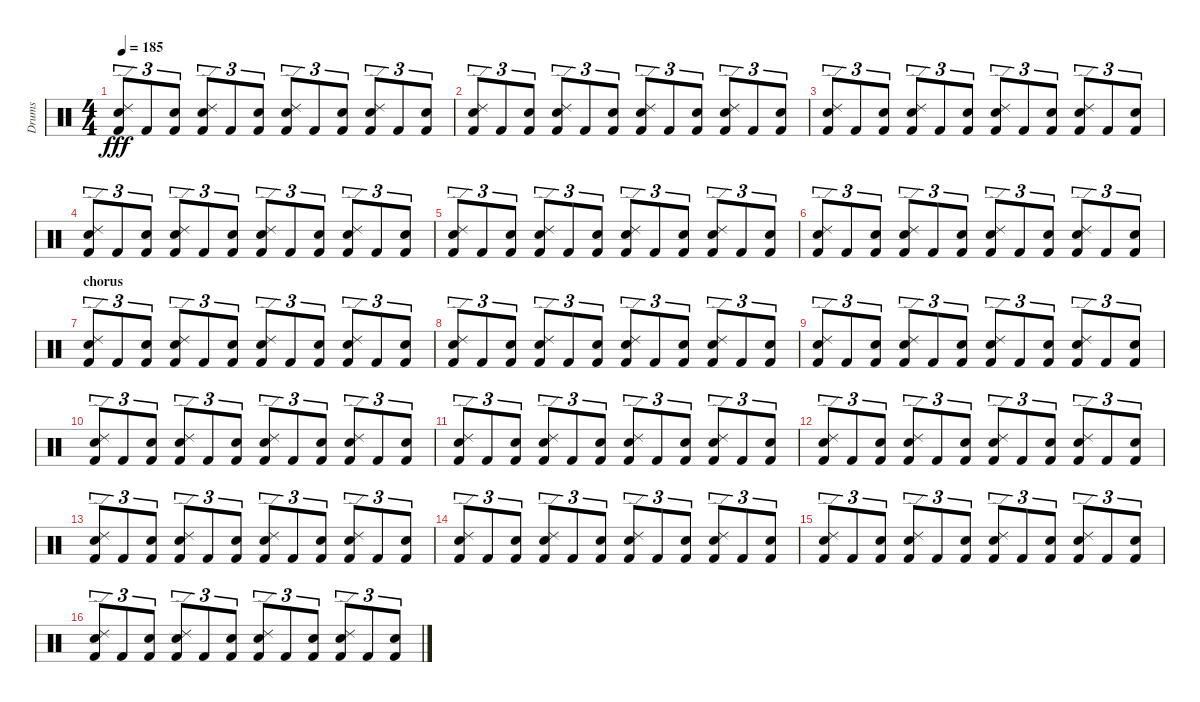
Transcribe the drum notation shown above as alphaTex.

\track ("Drums" "Drums") {instrument percussion}
\staff {score}
\articulation defaults
\ts (4 4)
\tempo 185
\clef neutral
\ks c
("Ride (edge) 2" "Electric Snare (hit)" "Kick (hit) 2").8{tu (3 2) dy fff} "Kick (hit) 2".8{tu (3 2)} ("Snare (hit) 2" "Kick (hit) 2").8{tu (3 2)} ("Ride (edge) 2" "Electric Snare (hit)" "Kick (hit) 2").8{tu (3 2)} "Kick (hit) 2".8{tu (3 2)} ("Snare (hit) 2" "Kick (hit) 2").8{tu (3 2)} ("Ride (edge) 2" "Electric Snare (hit)" "Kick (hit) 2").8{tu (3 2)} "Kick (hit) 2".8{tu (3 2)} ("Snare (hit) 2" "Kick (hit) 2").8{tu (3 2)} ("Ride (edge) 2" "Electric Snare (hit)" "Kick (hit) 2").8{tu (3 2)} "Kick (hit) 2".8{tu (3 2)} ("Snare (hit) 2" "Kick (hit) 2").8{tu (3 2)} |
("Ride (edge) 2" "Electric Snare (hit)" "Kick (hit) 2").8{tu (3 2)} "Kick (hit) 2".8{tu (3 2)} ("Snare (hit) 2" "Kick (hit) 2").8{tu (3 2)} ("Ride (edge) 2" "Electric Snare (hit)" "Kick (hit) 2").8{tu (3 2)} "Kick (hit) 2".8{tu (3 2)} ("Snare (hit) 2" "Kick (hit) 2").8{tu (3 2)} ("Ride (edge) 2" "Electric Snare (hit)" "Kick (hit) 2").8{tu (3 2)} "Kick (hit) 2".8{tu (3 2)} ("Snare (hit) 2" "Kick (hit) 2").8{tu (3 2)} ("Ride (edge) 2" "Electric Snare (hit)" "Kick (hit) 2").8{tu (3 2)} "Kick (hit) 2".8{tu (3 2)} ("Snare (hit) 2" "Kick (hit) 2").8{tu (3 2)} |
("Ride (edge) 2" "Electric Snare (hit)" "Kick (hit) 2").8{tu (3 2)} "Kick (hit) 2".8{tu (3 2)} ("Snare (hit) 2" "Kick (hit) 2").8{tu (3 2)} ("Ride (edge) 2" "Electric Snare (hit)" "Kick (hit) 2").8{tu (3 2)} "Kick (hit) 2".8{tu (3 2)} ("Snare (hit) 2" "Kick (hit) 2").8{tu (3 2)} ("Ride (edge) 2" "Electric Snare (hit)" "Kick (hit) 2").8{tu (3 2)} "Kick (hit) 2".8{tu (3 2)} ("Snare (hit) 2" "Kick (hit) 2").8{tu (3 2)} ("Ride (edge) 2" "Electric Snare (hit)" "Kick (hit) 2").8{tu (3 2)} "Kick (hit) 2".8{tu (3 2)} ("Snare (hit) 2" "Kick (hit) 2").8{tu (3 2)} |
("Ride (edge) 2" "Electric Snare (hit)" "Kick (hit) 2").8{tu (3 2)} "Kick (hit) 2".8{tu (3 2)} ("Snare (hit) 2" "Kick (hit) 2").8{tu (3 2)} ("Ride (edge) 2" "Electric Snare (hit)" "Kick (hit) 2").8{tu (3 2)} "Kick (hit) 2".8{tu (3 2)} ("Snare (hit) 2" "Kick (hit) 2").8{tu (3 2)} ("Ride (edge) 2" "Electric Snare (hit)" "Kick (hit) 2").8{tu (3 2)} "Kick (hit) 2".8{tu (3 2)} ("Snare (hit) 2" "Kick (hit) 2").8{tu (3 2)} ("Ride (edge) 2" "Electric Snare (hit)" "Kick (hit) 2").8{tu (3 2)} "Kick (hit) 2".8{tu (3 2)} ("Snare (hit) 2" "Kick (hit) 2").8{tu (3 2)} |
("Ride (edge) 2" "Electric Snare (hit)" "Kick (hit) 2").8{tu (3 2)} "Kick (hit) 2".8{tu (3 2)} ("Snare (hit) 2" "Kick (hit) 2").8{tu (3 2)} ("Ride (edge) 2" "Electric Snare (hit)" "Kick (hit) 2").8{tu (3 2)} "Kick (hit) 2".8{tu (3 2)} ("Snare (hit) 2" "Kick (hit) 2").8{tu (3 2)} ("Ride (edge) 2" "Electric Snare (hit)" "Kick (hit) 2").8{tu (3 2)} "Kick (hit) 2".8{tu (3 2)} ("Snare (hit) 2" "Kick (hit) 2").8{tu (3 2)} ("Ride (edge) 2" "Electric Snare (hit)" "Kick (hit) 2").8{tu (3 2)} "Kick (hit) 2".8{tu (3 2)} ("Snare (hit) 2" "Kick (hit) 2").8{tu (3 2)} |
("Ride (edge) 2" "Electric Snare (hit)" "Kick (hit) 2").8{tu (3 2)} "Kick (hit) 2".8{tu (3 2)} ("Snare (hit) 2" "Kick (hit) 2").8{tu (3 2)} ("Ride (edge) 2" "Electric Snare (hit)" "Kick (hit) 2").8{tu (3 2)} "Kick (hit) 2".8{tu (3 2)} ("Snare (hit) 2" "Kick (hit) 2").8{tu (3 2)} ("Ride (edge) 2" "Electric Snare (hit)" "Kick (hit) 2").8{tu (3 2)} "Kick (hit) 2".8{tu (3 2)} ("Snare (hit) 2" "Kick (hit) 2").8{tu (3 2)} ("Ride (edge) 2" "Electric Snare (hit)" "Kick (hit) 2").8{tu (3 2)} "Kick (hit) 2".8{tu (3 2)} ("Snare (hit) 2" "Kick (hit) 2").8{tu (3 2)} |
\section ("" "chorus")
("Ride (edge) 2" "Electric Snare (hit)" "Kick (hit) 2").8{tu (3 2)} "Kick (hit) 2".8{tu (3 2)} ("Snare (hit) 2" "Kick (hit) 2").8{tu (3 2)} ("Ride (edge) 2" "Electric Snare (hit)" "Kick (hit) 2").8{tu (3 2)} "Kick (hit) 2".8{tu (3 2)} ("Snare (hit) 2" "Kick (hit) 2").8{tu (3 2)} ("Ride (edge) 2" "Electric Snare (hit)" "Kick (hit) 2").8{tu (3 2)} "Kick (hit) 2".8{tu (3 2)} ("Snare (hit) 2" "Kick (hit) 2").8{tu (3 2)} ("Ride (edge) 2" "Electric Snare (hit)" "Kick (hit) 2").8{tu (3 2)} "Kick (hit) 2".8{tu (3 2)} ("Snare (hit) 2" "Kick (hit) 2").8{tu (3 2)} |
("Ride (edge) 2" "Electric Snare (hit)" "Kick (hit) 2").8{tu (3 2)} "Kick (hit) 2".8{tu (3 2)} ("Snare (hit) 2" "Kick (hit) 2").8{tu (3 2)} ("Ride (edge) 2" "Electric Snare (hit)" "Kick (hit) 2").8{tu (3 2)} "Kick (hit) 2".8{tu (3 2)} ("Snare (hit) 2" "Kick (hit) 2").8{tu (3 2)} ("Ride (edge) 2" "Electric Snare (hit)" "Kick (hit) 2").8{tu (3 2)} "Kick (hit) 2".8{tu (3 2)} ("Snare (hit) 2" "Kick (hit) 2").8{tu (3 2)} ("Ride (edge) 2" "Electric Snare (hit)" "Kick (hit) 2").8{tu (3 2)} "Kick (hit) 2".8{tu (3 2)} ("Snare (hit) 2" "Kick (hit) 2").8{tu (3 2)} |
("Ride (edge) 2" "Electric Snare (hit)" "Kick (hit) 2").8{tu (3 2)} "Kick (hit) 2".8{tu (3 2)} ("Snare (hit) 2" "Kick (hit) 2").8{tu (3 2)} ("Ride (edge) 2" "Electric Snare (hit)" "Kick (hit) 2").8{tu (3 2)} "Kick (hit) 2".8{tu (3 2)} ("Snare (hit) 2" "Kick (hit) 2").8{tu (3 2)} ("Ride (edge) 2" "Electric Snare (hit)" "Kick (hit) 2").8{tu (3 2)} "Kick (hit) 2".8{tu (3 2)} ("Snare (hit) 2" "Kick (hit) 2").8{tu (3 2)} ("Ride (edge) 2" "Electric Snare (hit)" "Kick (hit) 2").8{tu (3 2)} "Kick (hit) 2".8{tu (3 2)} ("Snare (hit) 2" "Kick (hit) 2").8{tu (3 2)} |
("Ride (edge) 2" "Electric Snare (hit)" "Kick (hit) 2").8{tu (3 2)} "Kick (hit) 2".8{tu (3 2)} ("Snare (hit) 2" "Kick (hit) 2").8{tu (3 2)} ("Ride (edge) 2" "Electric Snare (hit)" "Kick (hit) 2").8{tu (3 2)} "Kick (hit) 2".8{tu (3 2)} ("Snare (hit) 2" "Kick (hit) 2").8{tu (3 2)} ("Ride (edge) 2" "Electric Snare (hit)" "Kick (hit) 2").8{tu (3 2)} "Kick (hit) 2".8{tu (3 2)} ("Snare (hit) 2" "Kick (hit) 2").8{tu (3 2)} ("Ride (edge) 2" "Electric Snare (hit)" "Kick (hit) 2").8{tu (3 2)} "Kick (hit) 2".8{tu (3 2)} ("Snare (hit) 2" "Kick (hit) 2").8{tu (3 2)} |
("Ride (edge) 2" "Electric Snare (hit)" "Kick (hit) 2").8{tu (3 2)} "Kick (hit) 2".8{tu (3 2)} ("Snare (hit) 2" "Kick (hit) 2").8{tu (3 2)} ("Ride (edge) 2" "Electric Snare (hit)" "Kick (hit) 2").8{tu (3 2)} "Kick (hit) 2".8{tu (3 2)} ("Snare (hit) 2" "Kick (hit) 2").8{tu (3 2)} ("Ride (edge) 2" "Electric Snare (hit)" "Kick (hit) 2").8{tu (3 2)} "Kick (hit) 2".8{tu (3 2)} ("Snare (hit) 2" "Kick (hit) 2").8{tu (3 2)} ("Ride (edge) 2" "Electric Snare (hit)" "Kick (hit) 2").8{tu (3 2)} "Kick (hit) 2".8{tu (3 2)} ("Snare (hit) 2" "Kick (hit) 2").8{tu (3 2)} |
("Ride (edge) 2" "Electric Snare (hit)" "Kick (hit) 2").8{tu (3 2)} "Kick (hit) 2".8{tu (3 2)} ("Snare (hit) 2" "Kick (hit) 2").8{tu (3 2)} ("Ride (edge) 2" "Electric Snare (hit)" "Kick (hit) 2").8{tu (3 2)} "Kick (hit) 2".8{tu (3 2)} ("Snare (hit) 2" "Kick (hit) 2").8{tu (3 2)} ("Ride (edge) 2" "Electric Snare (hit)" "Kick (hit) 2").8{tu (3 2)} "Kick (hit) 2".8{tu (3 2)} ("Snare (hit) 2" "Kick (hit) 2").8{tu (3 2)} ("Ride (edge) 2" "Electric Snare (hit)" "Kick (hit) 2").8{tu (3 2)} "Kick (hit) 2".8{tu (3 2)} ("Snare (hit) 2" "Kick (hit) 2").8{tu (3 2)} |
("Ride (edge) 2" "Electric Snare (hit)" "Kick (hit) 2").8{tu (3 2)} "Kick (hit) 2".8{tu (3 2)} ("Snare (hit) 2" "Kick (hit) 2").8{tu (3 2)} ("Ride (edge) 2" "Electric Snare (hit)" "Kick (hit) 2").8{tu (3 2)} "Kick (hit) 2".8{tu (3 2)} ("Snare (hit) 2" "Kick (hit) 2").8{tu (3 2)} ("Ride (edge) 2" "Electric Snare (hit)" "Kick (hit) 2").8{tu (3 2)} "Kick (hit) 2".8{tu (3 2)} ("Snare (hit) 2" "Kick (hit) 2").8{tu (3 2)} ("Ride (edge) 2" "Electric Snare (hit)" "Kick (hit) 2").8{tu (3 2)} "Kick (hit) 2".8{tu (3 2)} ("Snare (hit) 2" "Kick (hit) 2").8{tu (3 2)} |
("Ride (edge) 2" "Electric Snare (hit)" "Kick (hit) 2").8{tu (3 2)} "Kick (hit) 2".8{tu (3 2)} ("Snare (hit) 2" "Kick (hit) 2").8{tu (3 2)} ("Ride (edge) 2" "Electric Snare (hit)" "Kick (hit) 2").8{tu (3 2)} "Kick (hit) 2".8{tu (3 2)} ("Snare (hit) 2" "Kick (hit) 2").8{tu (3 2)} ("Ride (edge) 2" "Electric Snare (hit)" "Kick (hit) 2").8{tu (3 2)} "Kick (hit) 2".8{tu (3 2)} ("Snare (hit) 2" "Kick (hit) 2").8{tu (3 2)} ("Ride (edge) 2" "Electric Snare (hit)" "Kick (hit) 2").8{tu (3 2)} "Kick (hit) 2".8{tu (3 2)} ("Snare (hit) 2" "Kick (hit) 2").8{tu (3 2)} |
("Ride (edge) 2" "Electric Snare (hit)" "Kick (hit) 2").8{tu (3 2)} "Kick (hit) 2".8{tu (3 2)} ("Snare (hit) 2" "Kick (hit) 2").8{tu (3 2)} ("Ride (edge) 2" "Electric Snare (hit)" "Kick (hit) 2").8{tu (3 2)} "Kick (hit) 2".8{tu (3 2)} ("Snare (hit) 2" "Kick (hit) 2").8{tu (3 2)} ("Ride (edge) 2" "Electric Snare (hit)" "Kick (hit) 2").8{tu (3 2)} "Kick (hit) 2".8{tu (3 2)} ("Snare (hit) 2" "Kick (hit) 2").8{tu (3 2)} ("Ride (edge) 2" "Electric Snare (hit)" "Kick (hit) 2").8{tu (3 2)} "Kick (hit) 2".8{tu (3 2)} ("Snare (hit) 2" "Kick (hit) 2").8{tu (3 2)} |
("Ride (edge) 2" "Electric Snare (hit)" "Kick (hit) 2").8{tu (3 2)} "Kick (hit) 2".8{tu (3 2)} ("Snare (hit) 2" "Kick (hit) 2").8{tu (3 2)} ("Ride (edge) 2" "Electric Snare (hit)" "Kick (hit) 2").8{tu (3 2)} "Kick (hit) 2".8{tu (3 2)} ("Snare (hit) 2" "Kick (hit) 2").8{tu (3 2)} ("Ride (edge) 2" "Electric Snare (hit)" "Kick (hit) 2").8{tu (3 2)} "Kick (hit) 2".8{tu (3 2)} ("Snare (hit) 2" "Kick (hit) 2").8{tu (3 2)} ("Ride (edge) 2" "Electric Snare (hit)" "Kick (hit) 2").8{tu (3 2)} "Kick (hit) 2".8{tu (3 2)} ("Snare (hit) 2" "Kick (hit) 2").8{tu (3 2)}
